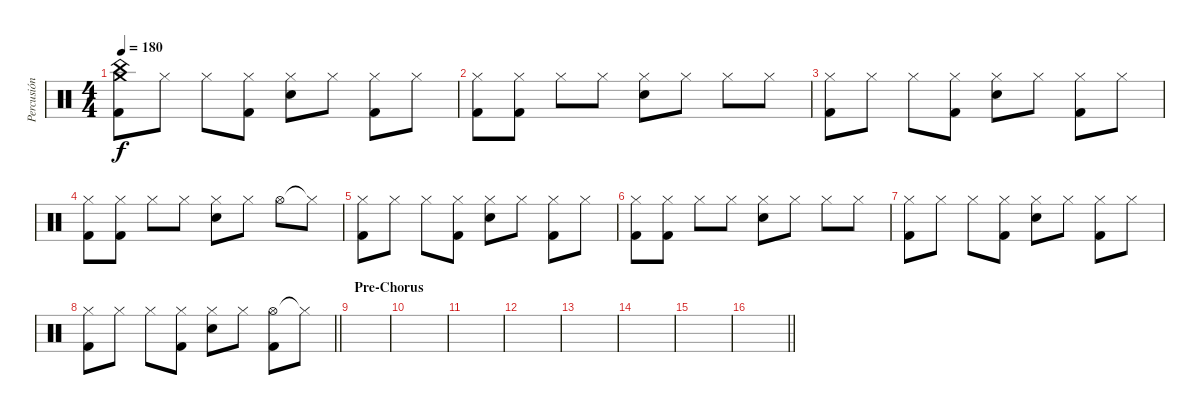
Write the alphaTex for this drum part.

\track ("Percusión" "Percusión") {instrument percussion}
\staff {score}
\articulation defaults
\ts (4 4)
\tempo 180
\clef neutral
\ks c
("Crash medium (hit)" "China (hit)" "Kick (hit) 2").8{dy f} "Hi-Hat (closed)".8 "Hi-Hat (closed)".8 ("Hi-Hat (closed)" "Kick (hit) 2").8 ("Hi-Hat (closed)" "Snare (hit) 2").8 "Hi-Hat (closed)".8 ("Hi-Hat (closed)" "Kick (hit) 2").8 "Hi-Hat (closed)".8 |
("Hi-Hat (closed)" "Kick (hit) 2").8 ("Hi-Hat (closed)" "Kick (hit) 2").8 "Hi-Hat (closed)".8 "Hi-Hat (closed)".8 ("Hi-Hat (closed)" "Snare (hit) 2").8 "Hi-Hat (closed)".8 "Hi-Hat (closed)".8 "Hi-Hat (closed)".8 |
("Hi-Hat (closed)" "Kick (hit) 2").8 "Hi-Hat (closed)".8 "Hi-Hat (closed)".8 ("Hi-Hat (closed)" "Kick (hit) 2").8 ("Hi-Hat (closed)" "Snare (hit) 2").8 "Hi-Hat (closed)".8 ("Hi-Hat (closed)" "Kick (hit) 2").8 "Hi-Hat (closed)".8 |
("Hi-Hat (closed)" "Kick (hit) 2").8 ("Hi-Hat (closed)" "Kick (hit) 2").8 "Hi-Hat (closed)".8 "Hi-Hat (closed)".8 ("Hi-Hat (closed)" "Snare (hit) 2").8 "Hi-Hat (closed)".8 "Hi-Hat (open)".8 "Hi-Hat (closed)"{t}.8 |
("Hi-Hat (closed)" "Kick (hit) 2").8 "Hi-Hat (closed)".8 "Hi-Hat (closed)".8 ("Hi-Hat (closed)" "Kick (hit) 2").8 ("Hi-Hat (closed)" "Snare (hit) 2").8 "Hi-Hat (closed)".8 ("Hi-Hat (closed)" "Kick (hit) 2").8 "Hi-Hat (closed)".8 |
("Hi-Hat (closed)" "Kick (hit) 2").8 ("Hi-Hat (closed)" "Kick (hit) 2").8 "Hi-Hat (closed)".8 "Hi-Hat (closed)".8 ("Hi-Hat (closed)" "Snare (hit) 2").8 "Hi-Hat (closed)".8 "Hi-Hat (closed)".8 "Hi-Hat (closed)".8 |
("Hi-Hat (closed)" "Kick (hit) 2").8 "Hi-Hat (closed)".8 "Hi-Hat (closed)".8 ("Hi-Hat (closed)" "Kick (hit) 2").8 ("Hi-Hat (closed)" "Snare (hit) 2").8 "Hi-Hat (closed)".8 ("Hi-Hat (closed)" "Kick (hit) 2").8 "Hi-Hat (closed)".8 |
\barLineRight lightlight
("Hi-Hat (closed)" "Kick (hit) 2").8 "Hi-Hat (closed)".8 "Hi-Hat (closed)".8 ("Hi-Hat (closed)" "Kick (hit) 2").8 ("Hi-Hat (closed)" "Snare (hit) 2").8 "Hi-Hat (closed)".8 ("Hi-Hat (open)" "Kick (hit) 2").8 "Hi-Hat (closed)"{t}.8 |
\section ("" "Pre-Chorus")
|
|
|
|
|
|
|
\barLineRight lightlight
